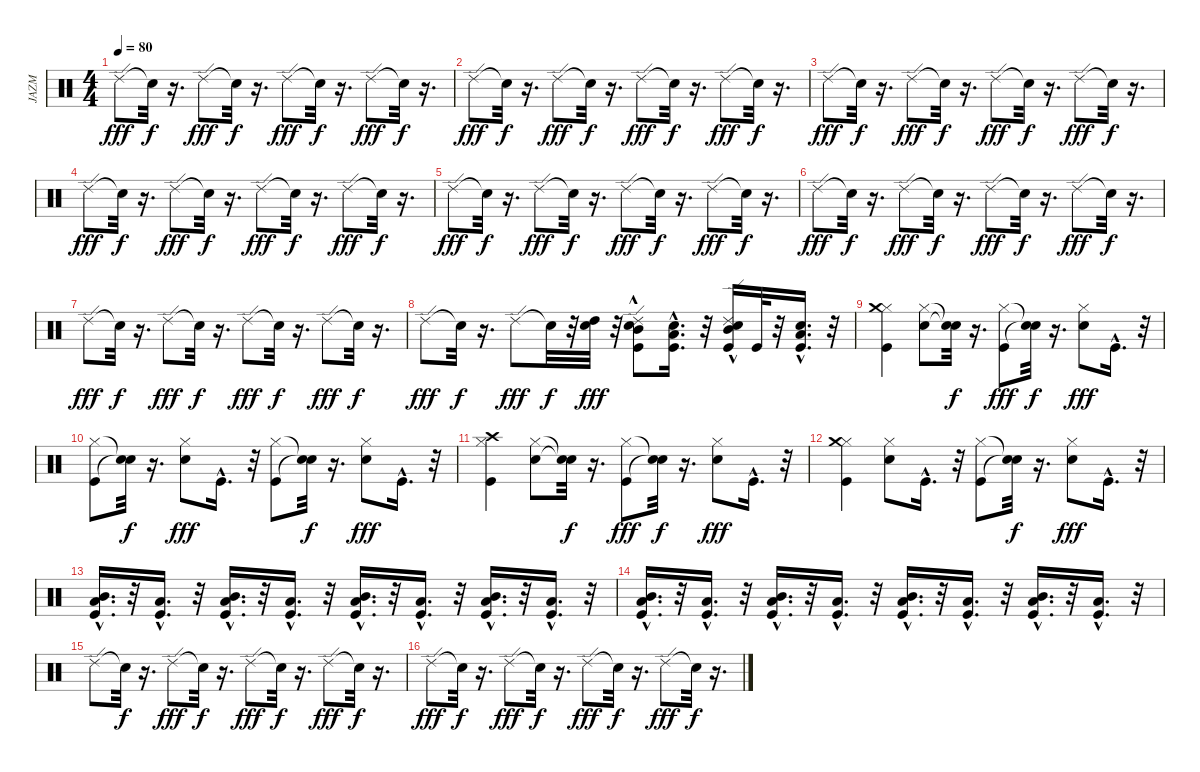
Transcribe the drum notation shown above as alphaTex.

\track ("JAZM" "JAZM") {instrument percussion}
\staff {score}
\articulation defaults
\ts (4 4)
\tempo 80
\clef neutral
\ks c "Ride (edge) 2".8{dy fff} "Snare (hit)"{t}.32{dy f}
r.16{d} "Ride (edge) 2".8{dy fff} "Snare (hit)"{t}.32{dy f} r.16{d} "Ride (edge) 2".8{dy fff} "Snare (hit)"{t}.32{dy f} r.16{d} "Ride (edge) 2".8{dy fff} "Snare (hit)"{t}.32{dy f} r.16{d} |
"Ride (edge) 2".8{dy fff} "Snare (hit)"{t}.32{dy f} r.16{d} "Ride (edge) 2".8{dy fff} "Snare (hit)"{t}.32{dy f} r.16{d} "Ride (edge) 2".8{dy fff} "Snare (hit)"{t}.32{dy f} r.16{d} "Ride (edge) 2".8{dy fff} "Snare (hit)"{t}.32{dy f} r.16{d} |
"Ride (edge) 2".8{dy fff} "Snare (hit)"{t}.32{dy f} r.16{d} "Ride (edge) 2".8{dy fff} "Snare (hit)"{t}.32{dy f} r.16{d} "Ride (edge) 2".8{dy fff} "Snare (hit)"{t}.32{dy f} r.16{d} "Ride (edge) 2".8{dy fff} "Snare (hit)"{t}.32{dy f} r.16{d} |
"Ride (edge) 2".8{dy fff} "Snare (hit)"{t}.32{dy f} r.16{d} "Ride (edge) 2".8{dy fff} "Snare (hit)"{t}.32{dy f} r.16{d} "Ride (edge) 2".8{dy fff} "Snare (hit)"{t}.32{dy f} r.16{d} "Ride (edge) 2".8{dy fff} "Snare (hit)"{t}.32{dy f} r.16{d} |
"Ride (edge) 2".8{dy fff} "Snare (hit)"{t}.32{dy f} r.16{d} "Ride (edge) 2".8{dy fff} "Snare (hit)"{t}.32{dy f} r.16{d} "Ride (edge) 2".8{dy fff} "Snare (hit)"{t}.32{dy f} r.16{d} "Ride (edge) 2".8{dy fff} "Snare (hit)"{t}.32{dy f} r.16{d} |
"Ride (edge) 2".8{dy fff} "Snare (hit)"{t}.32{dy f} r.16{d} "Ride (edge) 2".8{dy fff} "Snare (hit)"{t}.32{dy f} r.16{d} "Ride (edge) 2".8{dy fff} "Snare (hit)"{t}.32{dy f} r.16{d} "Ride (edge) 2".8{dy fff} "Snare (hit)"{t}.32{dy f} r.16{d} |
"Ride (edge) 2".8{dy fff} "Snare (hit)"{t}.32{dy f} r.16{d} "Ride (edge) 2".8{dy fff} "Snare (hit)"{t}.32{dy f} r.16{d} "Ride (edge) 2".8{dy fff} "Snare (hit)"{t}.32{dy f} r.16{d} "Ride (edge) 2".8{dy fff} "Snare (hit)"{t}.32{dy f} r.16{d} |
"Ride (edge) 2".8{dy fff} "Snare (hit)"{t}.32{dy f} r.16{d} "Ride (edge) 2".8{dy fff} "Snare (hit)"{t}.32{dy f} r.32 ("High Tom (hit)" "Snare (hit) 2").32{dy fff} r.32 ("Ride (edge) 2" "Mid Tom (hit)"{hac} "Kick (hit)"{hac} "Electric Snare (hit)"{hac}).8 ("Low Tom (hit)"{hac} "Kick (hit)"{hac} "Snare (hit) 2"{hac}).16{d} r.32 ("Ride (edge) 2" "Mid Tom (hit)"{hac} "Electric Snare (hit)"{hac} "Kick (hit)").16 "Kick (hit)".32 r.32 ("Low Tom (hit)"{hac} "Kick (hit)"{hac} "Snare (hit) 2"{hac}).16{d} r.32 |
("Hi-Hat (closed)" "Kick (hit)" "Crash medium (hit)").4 ("Hi-Hat (closed)" "Snare (hit) 2").8 ("Snare (hit)"{t} "Snare (hit)"{t}).32{dy f} r.16{d} ("Hi-Hat (closed)" "Kick (hit)").8{dy fff} ("Snare (hit)"{t} "Snare (hit)"{t}).32{dy f} r.16{d} ("Hi-Hat (closed)" "Snare (hit) 2").8{dy fff} "Kick (hit)"{hac}.16{d} r.32 |
("Hi-Hat (closed)" "Kick (hit)").8 ("Snare (hit)"{t} "Snare (hit)"{t}).32{dy f} r.16{d} ("Hi-Hat (closed)" "Snare (hit) 2").8{dy fff} "Kick (hit)"{hac}.16{d} r.32 ("Hi-Hat (closed)" "Kick (hit)").8 ("Snare (hit)"{t} "Snare (hit)"{t}).32{dy f} r.16{d} ("Hi-Hat (closed)" "Snare (hit) 2").8{dy fff} "Kick (hit)"{hac}.16{d} r.32 |
("Hi-Hat (closed)" "Kick (hit)" "Crash high (hit)").4 ("Hi-Hat (closed)" "Snare (hit) 2").8 ("Snare (hit)"{t} "Snare (hit)"{t}).32{dy f} r.16{d} ("Hi-Hat (closed)" "Kick (hit)").8{dy fff} ("Snare (hit)"{t} "Snare (hit)"{t}).32{dy f} r.16{d} ("Hi-Hat (closed)" "Snare (hit) 2").8{dy fff} "Kick (hit)"{hac}.16{d} r.32 |
("Hi-Hat (closed)" "Kick (hit)" "Crash medium (hit)").4 ("Hi-Hat (closed)" "Snare (hit) 2").8 "Kick (hit)"{hac}.16{d} r.32 ("Hi-Hat (closed)" "Kick (hit)").8 ("Snare (hit)"{t} "Snare (hit)"{t}).32{dy f} r.16{d} ("Hi-Hat (closed)" "Snare (hit) 2").8{dy fff} "Kick (hit)"{hac}.16{d} r.32 |
("Kick (hit)"{hac} "Mid Tom (hit)"{hac} "Low Tom (hit)"{hac}).16{d} r.32 ("Kick (hit)"{hac} "Low Tom (hit)"{hac}).16{d} r.32 ("Kick (hit)"{hac} "Mid Tom (hit)"{hac} "Low Tom (hit)"{hac}).16{d} r.32 ("Kick (hit)"{hac} "Low Tom (hit)"{hac}).16{d} r.32 ("Kick (hit)"{hac} "Mid Tom (hit)"{hac} "Low Tom (hit)"{hac}).16{d} r.32 ("Kick (hit)"{hac} "Low Tom (hit)"{hac}).16{d} r.32 ("Kick (hit)"{hac} "Mid Tom (hit)"{hac} "Low Tom (hit)"{hac}).16{d} r.32 ("Kick (hit)"{hac} "Low Tom (hit)"{hac}).16{d} r.32 |
("Kick (hit)"{hac} "Mid Tom (hit)"{hac} "Low Tom (hit)"{hac}).16{d} r.32 ("Kick (hit)"{hac} "Low Tom (hit)"{hac}).16{d} r.32 ("Kick (hit)"{hac} "Mid Tom (hit)"{hac} "Low Tom (hit)"{hac}).16{d} r.32 ("Kick (hit)"{hac} "Low Tom (hit)"{hac}).16{d} r.32 ("Kick (hit)"{hac} "Mid Tom (hit)"{hac} "Low Tom (hit)"{hac}).16{d} r.32 ("Kick (hit)"{hac} "Low Tom (hit)"{hac}).16{d} r.32 ("Kick (hit)"{hac} "Mid Tom (hit)"{hac} "Low Tom (hit)"{hac}).16{d} r.32 ("Kick (hit)"{hac} "Low Tom (hit)"{hac}).16{d} r.32 |
"Ride (edge) 2".8 "Snare (hit)"{t}.32{dy f} r.16{d} "Ride (edge) 2".8{dy fff} "Snare (hit)"{t}.32{dy f} r.16{d} "Ride (edge) 2".8{dy fff} "Snare (hit)"{t}.32{dy f} r.16{d} "Ride (edge) 2".8{dy fff} "Snare (hit)"{t}.32{dy f} r.16{d} |
"Ride (edge) 2".8{dy fff} "Snare (hit)"{t}.32{dy f} r.16{d} "Ride (edge) 2".8{dy fff} "Snare (hit)"{t}.32{dy f} r.16{d} "Ride (edge) 2".8{dy fff} "Snare (hit)"{t}.32{dy f} r.16{d} "Ride (edge) 2".8{dy fff} "Snare (hit)"{t}.32{dy f} r.16{d}
